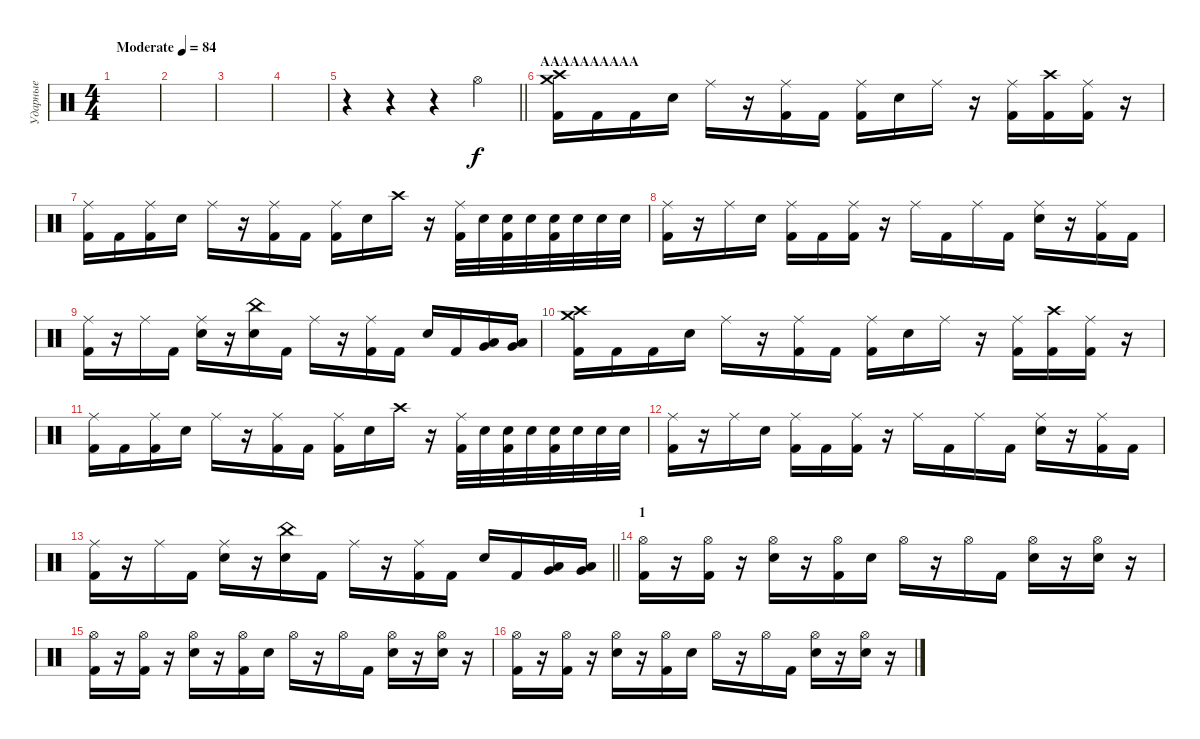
\track ("Ударные" "Ударные") {instrument percussion}
\staff {score}
\articulation defaults
\ts (4 4)
\tempo (84 "Moderate")
\clef neutral
\ks c
|
|
|
|
\barLineRight lightlight
r.4 r.4 r.4 "Hi-Hat (open)".4 |
\section ("" "АААААААААА")
("Crash high (hit)" "Crash medium (hit)" "Kick (hit) 2").16 "Kick (hit) 2".16 "Kick (hit) 2".16 "Snare (hit) 2".16 "Ride (middle)".16 r.16 ("Ride (middle)" "Kick (hit) 2").16 "Kick (hit) 2".16 ("Ride (middle)" "Kick (hit) 2").16 "Snare (hit) 2".16 "Ride (middle)".16 r.16 ("Ride (middle)" "Kick (hit) 2").16 ("Crash high (hit)" "Kick (hit) 2").16 ("Ride (middle)" "Kick (hit) 2").16 r.16 |
("Ride (middle)" "Kick (hit) 2").16 "Kick (hit) 2".16 ("Ride (middle)" "Kick (hit) 2").16 "Snare (hit) 2".16 "Ride (middle)".16 r.16 ("Ride (middle)" "Kick (hit) 2").16 "Kick (hit) 2".16 ("Ride (middle)" "Kick (hit) 2").16 "Snare (hit) 2".16 "Crash high (hit)".16 r.16 ("Ride (middle)" "Kick (hit) 2").32 "Snare (hit) 2".32 ("Snare (hit) 2" "Kick (hit) 2").32 "Snare (hit) 2".32 ("Snare (hit) 2" "Kick (hit) 2").32 "Snare (hit) 2".32 "Snare (hit) 2".32 "Snare (hit) 2".32 |
("Ride (middle)" "Kick (hit) 2").16 r.16 "Ride (middle)".16 "Snare (hit) 2".16 ("Ride (middle)" "Kick (hit) 2").16 "Kick (hit) 2".16 ("Ride (middle)" "Kick (hit) 2").16 r.16 "Ride (middle)".16 "Kick (hit) 2".16 "Ride (middle)".16 "Kick (hit) 2".16 ("Ride (middle)" "Snare (hit) 2").16 r.16 ("Ride (middle)" "Kick (hit) 2").16 "Kick (hit) 2".16 |
("Ride (middle)" "Kick (hit) 2").16 r.16 "Ride (middle)".16 "Kick (hit) 2".16 ("Ride (middle)" "Snare (hit) 2").16 r.16 ("China (hit)" "Snare (hit) 2").16 "Kick (hit) 2".16 "Ride (middle)".16 r.16 ("Ride (middle)" "Kick (hit) 2").16 "Kick (hit) 2".16 "Snare (hit) 2".16 "Kick (hit) 2".16 ("Low Tom (hit)" "Very Low Tom (hit)").16 ("Very Low Tom (hit)" "Low Floor Tom (hit)").16 |
("Crash high (hit)" "Crash medium (hit)" "Kick (hit) 2").16 "Kick (hit) 2".16 "Kick (hit) 2".16 "Snare (hit) 2".16 "Ride (middle)".16 r.16 ("Ride (middle)" "Kick (hit) 2").16 "Kick (hit) 2".16 ("Ride (middle)" "Kick (hit) 2").16 "Snare (hit) 2".16 "Ride (middle)".16 r.16 ("Ride (middle)" "Kick (hit) 2").16 ("Crash high (hit)" "Kick (hit) 2").16 ("Ride (middle)" "Kick (hit) 2").16 r.16 |
("Ride (middle)" "Kick (hit) 2").16 "Kick (hit) 2".16 ("Ride (middle)" "Kick (hit) 2").16 "Snare (hit) 2".16 "Ride (middle)".16 r.16 ("Ride (middle)" "Kick (hit) 2").16 "Kick (hit) 2".16 ("Ride (middle)" "Kick (hit) 2").16 "Snare (hit) 2".16 "Crash high (hit)".16 r.16 ("Ride (middle)" "Kick (hit) 2").32 "Snare (hit) 2".32 ("Snare (hit) 2" "Kick (hit) 2").32 "Snare (hit) 2".32 ("Snare (hit) 2" "Kick (hit) 2").32 "Snare (hit) 2".32 "Snare (hit) 2".32 "Snare (hit) 2".32 |
("Ride (middle)" "Kick (hit) 2").16 r.16 "Ride (middle)".16 "Snare (hit) 2".16 ("Ride (middle)" "Kick (hit) 2").16 "Kick (hit) 2".16 ("Ride (middle)" "Kick (hit) 2").16 r.16 "Ride (middle)".16 "Kick (hit) 2".16 "Ride (middle)".16 "Kick (hit) 2".16 ("Ride (middle)" "Snare (hit) 2").16 r.16 ("Ride (middle)" "Kick (hit) 2").16 "Kick (hit) 2".16 |
\barLineRight lightlight
("Ride (middle)" "Kick (hit) 2").16 r.16 "Ride (middle)".16 "Kick (hit) 2".16 ("Ride (middle)" "Snare (hit) 2").16 r.16 ("China (hit)" "Snare (hit) 2").16 "Kick (hit) 2".16 "Ride (middle)".16 r.16 ("Ride (middle)" "Kick (hit) 2").16 "Kick (hit) 2".16 "Snare (hit) 2".16 "Kick (hit) 2".16 ("Low Tom (hit)" "Very Low Tom (hit)").16 ("Very Low Tom (hit)" "Low Floor Tom (hit)").16 |
\section ("" "1")
("Hi-Hat (open)" "Kick (hit) 2").16 r.16 ("Hi-Hat (open)" "Kick (hit) 2").16 r.16 ("Hi-Hat (open)" "Snare (hit) 2").16 r.16 ("Hi-Hat (open)" "Kick (hit) 2").16 "Snare (hit) 2".16 "Hi-Hat (open)".16 r.16 "Hi-Hat (open)".16 "Kick (hit) 2".16 ("Hi-Hat (open)" "Snare (hit) 2").16 r.16 ("Hi-Hat (open)" "Snare (hit) 2").16 r.16 |
("Hi-Hat (open)" "Kick (hit) 2").16 r.16 ("Hi-Hat (open)" "Kick (hit) 2").16 r.16 ("Hi-Hat (open)" "Snare (hit) 2").16 r.16 ("Hi-Hat (open)" "Kick (hit) 2").16 "Snare (hit) 2".16 "Hi-Hat (open)".16 r.16 "Hi-Hat (open)".16 "Kick (hit) 2".16 ("Hi-Hat (open)" "Snare (hit) 2").16 r.16 ("Hi-Hat (open)" "Snare (hit) 2").16 r.16 |
("Hi-Hat (open)" "Kick (hit) 2").16 r.16 ("Hi-Hat (open)" "Kick (hit) 2").16 r.16 ("Hi-Hat (open)" "Snare (hit) 2").16 r.16 ("Hi-Hat (open)" "Kick (hit) 2").16 "Snare (hit) 2".16 "Hi-Hat (open)".16 r.16 "Hi-Hat (open)".16 "Kick (hit) 2".16 ("Hi-Hat (open)" "Snare (hit) 2").16 r.16 ("Hi-Hat (open)" "Snare (hit) 2").16 r.16
